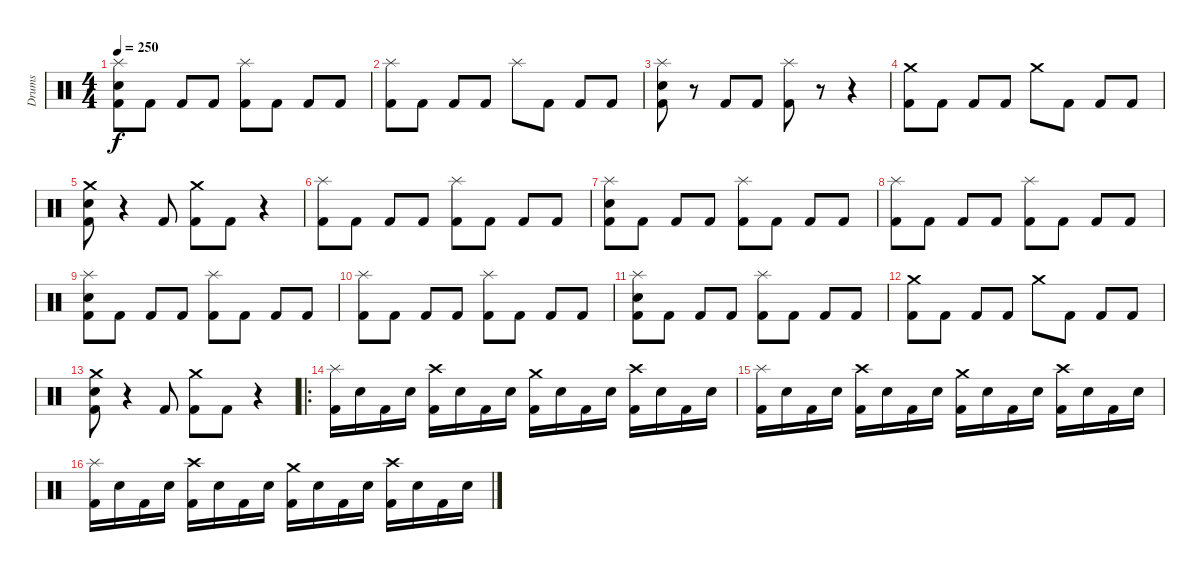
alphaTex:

\track ("Drums" "Drums") {instrument percussion}
\staff {score}
\articulation defaults
\ts (4 4)
\tempo 250
\clef neutral
\ks c
("Kick (hit) 2" "Electric Snare (hit)" "Splash (hit)").8{dy f} "Kick (hit) 2".8 "Kick (hit) 2".8 "Kick (hit) 2".8 ("Kick (hit) 2" "Splash (hit)").8 "Kick (hit) 2".8 "Kick (hit) 2".8 "Kick (hit) 2".8 |
("Kick (hit) 2" "Splash (hit)").8 "Kick (hit) 2".8 "Kick (hit) 2".8 "Kick (hit) 2".8 "Splash (hit)".8 "Kick (hit) 2".8 "Kick (hit) 2".8 "Kick (hit) 2".8 |
("Kick (hit) 2" "Electric Snare (hit)" "Splash (hit)").8 r.8 "Kick (hit) 2".8 "Kick (hit) 2".8 ("Kick (hit) 2" "Splash (hit)").8 r.8 r.4 |
("Kick (hit) 2" "Crash medium (hit)").8 "Kick (hit) 2".8 "Kick (hit) 2".8 "Kick (hit) 2".8 "Crash medium (hit)".8 "Kick (hit) 2".8 "Kick (hit) 2".8 "Kick (hit) 2".8 |
("Kick (hit) 2" "Electric Snare (hit)" "Crash medium (hit)").8 r.4 "Kick (hit) 2".8 ("Kick (hit) 2" "Crash medium (hit)").8 "Kick (hit) 2".8 r.4 |
("Kick (hit) 2" "Splash (hit)").8 "Kick (hit) 2".8 "Kick (hit) 2".8 "Kick (hit) 2".8 ("Kick (hit) 2" "Splash (hit)").8 "Kick (hit) 2".8 "Kick (hit) 2".8 "Kick (hit) 2".8 |
("Kick (hit) 2" "Electric Snare (hit)" "Splash (hit)").8 "Kick (hit) 2".8 "Kick (hit) 2".8 "Kick (hit) 2".8 ("Kick (hit) 2" "Splash (hit)").8 "Kick (hit) 2".8 "Kick (hit) 2".8 "Kick (hit) 2".8 |
("Kick (hit) 2" "Splash (hit)").8 "Kick (hit) 2".8 "Kick (hit) 2".8 "Kick (hit) 2".8 ("Kick (hit) 2" "Splash (hit)").8 "Kick (hit) 2".8 "Kick (hit) 2".8 "Kick (hit) 2".8 |
("Kick (hit) 2" "Electric Snare (hit)" "Splash (hit)").8 "Kick (hit) 2".8 "Kick (hit) 2".8 "Kick (hit) 2".8 ("Kick (hit) 2" "Splash (hit)").8 "Kick (hit) 2".8 "Kick (hit) 2".8 "Kick (hit) 2".8 |
("Kick (hit) 2" "Splash (hit)").8 "Kick (hit) 2".8 "Kick (hit) 2".8 "Kick (hit) 2".8 ("Kick (hit) 2" "Splash (hit)").8 "Kick (hit) 2".8 "Kick (hit) 2".8 "Kick (hit) 2".8 |
("Kick (hit) 2" "Electric Snare (hit)" "Splash (hit)").8 "Kick (hit) 2".8 "Kick (hit) 2".8 "Kick (hit) 2".8 ("Kick (hit) 2" "Splash (hit)").8 "Kick (hit) 2".8 "Kick (hit) 2".8 "Kick (hit) 2".8 |
("Kick (hit) 2" "Crash medium (hit)").8 "Kick (hit) 2".8 "Kick (hit) 2".8 "Kick (hit) 2".8 "Crash medium (hit)".8 "Kick (hit) 2".8 "Kick (hit) 2".8 "Kick (hit) 2".8 |
("Kick (hit) 2" "Electric Snare (hit)" "Crash medium (hit)").8 r.4 "Kick (hit) 2".8 ("Kick (hit) 2" "Crash medium (hit)").8 "Kick (hit) 2".8 r.4 |
\ro
("Kick (hit) 2" "Splash (hit)").16 "Electric Snare (hit)".16 "Kick (hit) 2".16 "Electric Snare (hit)".16 ("Kick (hit) 2" "Crash high (hit)").16 "Electric Snare (hit)".16 "Kick (hit) 2".16 "Electric Snare (hit)".16 ("Kick (hit) 2" "Crash medium (hit)").16 "Electric Snare (hit)".16 "Kick (hit) 2".16 "Electric Snare (hit)".16 ("Kick (hit) 2" "Crash high (hit)").16 "Electric Snare (hit)".16 "Kick (hit) 2".16 "Electric Snare (hit)".16 |
("Kick (hit) 2" "Splash (hit)").16 "Electric Snare (hit)".16 "Kick (hit) 2".16 "Electric Snare (hit)".16 ("Kick (hit) 2" "Crash high (hit)").16 "Electric Snare (hit)".16 "Kick (hit) 2".16 "Electric Snare (hit)".16 ("Kick (hit) 2" "Crash medium (hit)").16 "Electric Snare (hit)".16 "Kick (hit) 2".16 "Electric Snare (hit)".16 ("Kick (hit) 2" "Crash high (hit)").16 "Electric Snare (hit)".16 "Kick (hit) 2".16 "Electric Snare (hit)".16 |
("Kick (hit) 2" "Splash (hit)").16 "Electric Snare (hit)".16 "Kick (hit) 2".16 "Electric Snare (hit)".16 ("Kick (hit) 2" "Crash high (hit)").16 "Electric Snare (hit)".16 "Kick (hit) 2".16 "Electric Snare (hit)".16 ("Kick (hit) 2" "Crash medium (hit)").16 "Electric Snare (hit)".16 "Kick (hit) 2".16 "Electric Snare (hit)".16 ("Kick (hit) 2" "Crash high (hit)").16 "Electric Snare (hit)".16 "Kick (hit) 2".16 "Electric Snare (hit)".16
